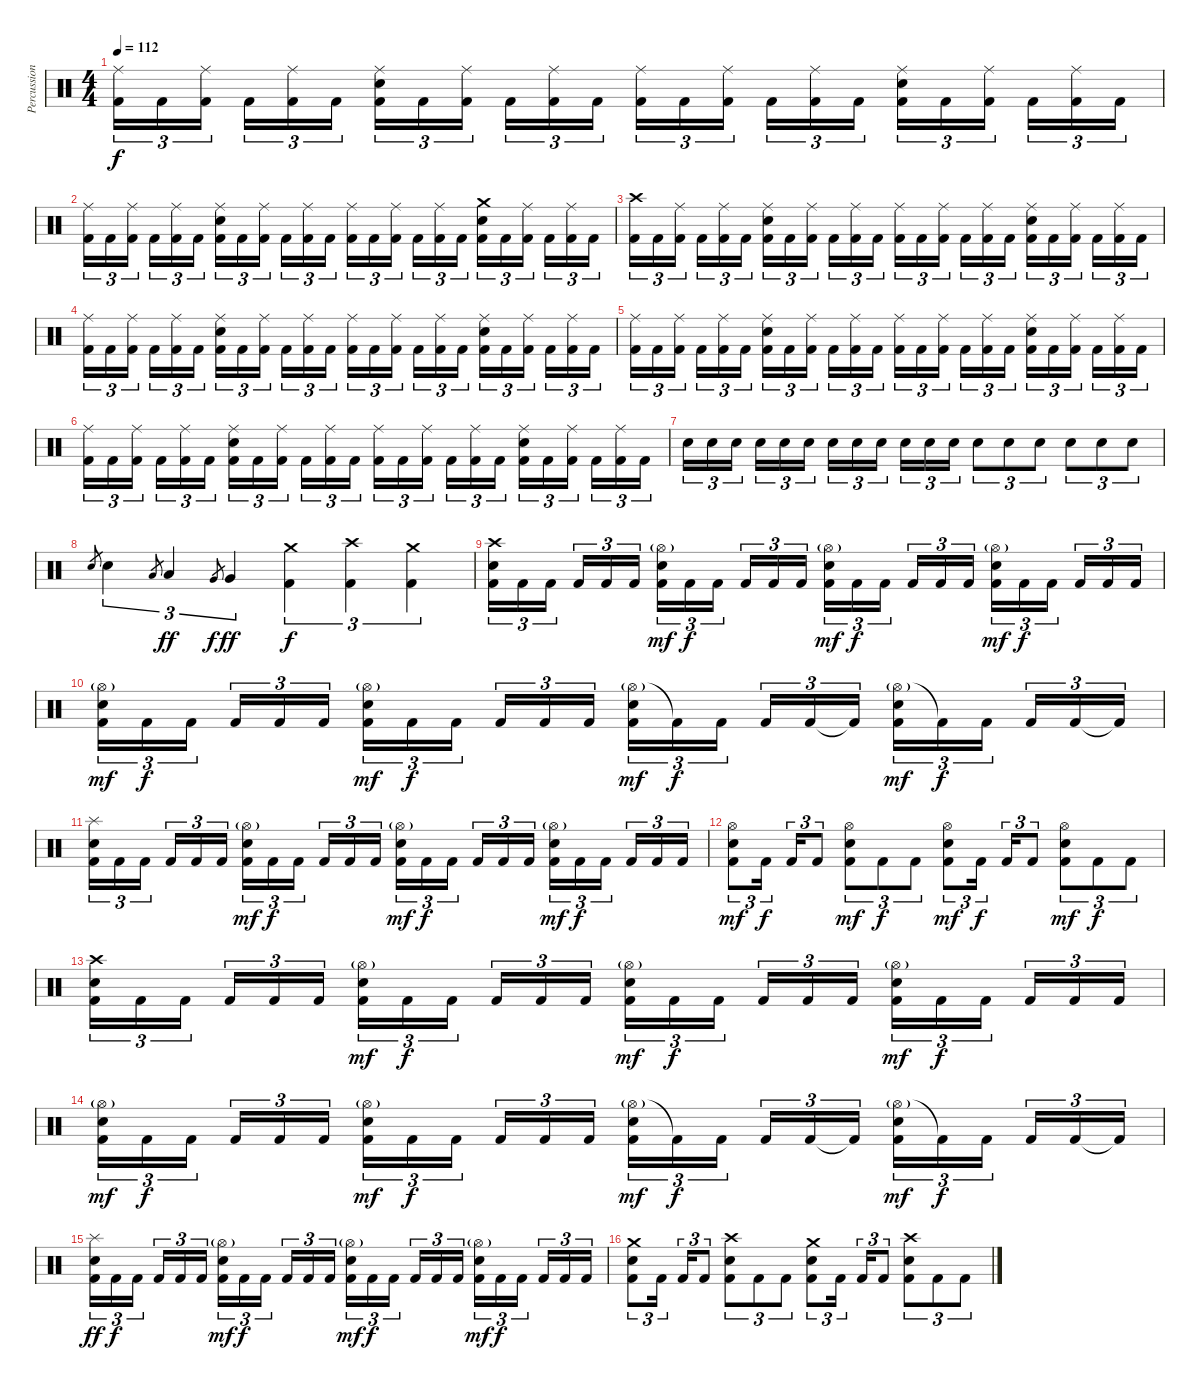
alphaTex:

\track ("Percussion" "Percussion") {instrument percussion}
\staff {score}
\articulation defaults
\ts (4 4)
\tempo 112
\clef neutral
\ks c
("Ride (middle)" "Kick (hit) 2").16{tu (3 2) dy f} "Kick (hit) 2".16{tu (3 2)} ("Ride (middle)" "Kick (hit) 2").16{tu (3 2)} "Kick (hit) 2".16{tu (3 2)} ("Ride (middle)" "Kick (hit) 2").16{tu (3 2)} "Kick (hit) 2".16{tu (3 2)} ("Ride (middle)" "Electric Snare (hit)" "Kick (hit) 2").16{tu (3 2)} "Kick (hit) 2".16{tu (3 2)} ("Ride (middle)" "Kick (hit) 2").16{tu (3 2)} "Kick (hit) 2".16{tu (3 2)} ("Ride (middle)" "Kick (hit) 2").16{tu (3 2)} "Kick (hit) 2".16{tu (3 2)} ("Ride (middle)" "Kick (hit) 2").16{tu (3 2)} "Kick (hit) 2".16{tu (3 2)} ("Ride (middle)" "Kick (hit) 2").16{tu (3 2)} "Kick (hit) 2".16{tu (3 2)} ("Ride (middle)" "Kick (hit) 2").16{tu (3 2)} "Kick (hit) 2".16{tu (3 2)} ("Ride (middle)" "Electric Snare (hit)" "Kick (hit) 2").16{tu (3 2)} "Kick (hit) 2".16{tu (3 2)} ("Ride (middle)" "Kick (hit) 2").16{tu (3 2)} "Kick (hit) 2".16{tu (3 2)} ("Ride (middle)" "Kick (hit) 2").16{tu (3 2)} "Kick (hit) 2".16{tu (3 2)} |
("Ride (middle)" "Kick (hit) 2").16{tu (3 2)} "Kick (hit) 2".16{tu (3 2)} ("Ride (middle)" "Kick (hit) 2").16{tu (3 2)} "Kick (hit) 2".16{tu (3 2)} ("Ride (middle)" "Kick (hit) 2").16{tu (3 2)} "Kick (hit) 2".16{tu (3 2)} ("Ride (middle)" "Electric Snare (hit)" "Kick (hit) 2").16{tu (3 2)} "Kick (hit) 2".16{tu (3 2)} ("Ride (middle)" "Kick (hit) 2").16{tu (3 2)} "Kick (hit) 2".16{tu (3 2)} ("Ride (middle)" "Kick (hit) 2").16{tu (3 2)} "Kick (hit) 2".16{tu (3 2)} ("Ride (middle)" "Kick (hit) 2").16{tu (3 2)} "Kick (hit) 2".16{tu (3 2)} ("Ride (middle)" "Kick (hit) 2").16{tu (3 2)} "Kick (hit) 2".16{tu (3 2)} ("Ride (middle)" "Kick (hit) 2").16{tu (3 2)} "Kick (hit) 2".16{tu (3 2)} ("Crash medium (hit)" "Electric Snare (hit)" "Kick (hit) 2").16{tu (3 2)} "Kick (hit) 2".16{tu (3 2)} ("Ride (middle)" "Kick (hit) 2").16{tu (3 2)} "Kick (hit) 2".16{tu (3 2)} ("Ride (middle)" "Kick (hit) 2").16{tu (3 2)} "Kick (hit) 2".16{tu (3 2)} |
("Crash high (hit)" "Kick (hit) 2").16{tu (3 2)} "Kick (hit) 2".16{tu (3 2)} ("Ride (middle)" "Kick (hit) 2").16{tu (3 2)} "Kick (hit) 2".16{tu (3 2)} ("Ride (middle)" "Kick (hit) 2").16{tu (3 2)} "Kick (hit) 2".16{tu (3 2)} ("Ride (middle)" "Electric Snare (hit)" "Kick (hit) 2").16{tu (3 2)} "Kick (hit) 2".16{tu (3 2)} ("Ride (middle)" "Kick (hit) 2").16{tu (3 2)} "Kick (hit) 2".16{tu (3 2)} ("Ride (middle)" "Kick (hit) 2").16{tu (3 2)} "Kick (hit) 2".16{tu (3 2)} ("Ride (middle)" "Kick (hit) 2").16{tu (3 2)} "Kick (hit) 2".16{tu (3 2)} ("Ride (middle)" "Kick (hit) 2").16{tu (3 2)} "Kick (hit) 2".16{tu (3 2)} ("Ride (middle)" "Kick (hit) 2").16{tu (3 2)} "Kick (hit) 2".16{tu (3 2)} ("Ride (middle)" "Electric Snare (hit)" "Kick (hit) 2").16{tu (3 2)} "Kick (hit) 2".16{tu (3 2)} ("Ride (middle)" "Kick (hit) 2").16{tu (3 2)} "Kick (hit) 2".16{tu (3 2)} ("Ride (middle)" "Kick (hit) 2").16{tu (3 2)} "Kick (hit) 2".16{tu (3 2)} |
("Ride (middle)" "Kick (hit) 2").16{tu (3 2)} "Kick (hit) 2".16{tu (3 2)} ("Ride (middle)" "Kick (hit) 2").16{tu (3 2)} "Kick (hit) 2".16{tu (3 2)} ("Ride (middle)" "Kick (hit) 2").16{tu (3 2)} "Kick (hit) 2".16{tu (3 2)} ("Ride (middle)" "Electric Snare (hit)" "Kick (hit) 2").16{tu (3 2)} "Kick (hit) 2".16{tu (3 2)} ("Ride (middle)" "Kick (hit) 2").16{tu (3 2)} "Kick (hit) 2".16{tu (3 2)} ("Ride (middle)" "Kick (hit) 2").16{tu (3 2)} "Kick (hit) 2".16{tu (3 2)} ("Ride (middle)" "Kick (hit) 2").16{tu (3 2)} "Kick (hit) 2".16{tu (3 2)} ("Ride (middle)" "Kick (hit) 2").16{tu (3 2)} "Kick (hit) 2".16{tu (3 2)} ("Ride (middle)" "Kick (hit) 2").16{tu (3 2)} "Kick (hit) 2".16{tu (3 2)} ("Ride (middle)" "Electric Snare (hit)" "Kick (hit) 2").16{tu (3 2)} "Kick (hit) 2".16{tu (3 2)} ("Ride (middle)" "Kick (hit) 2").16{tu (3 2)} "Kick (hit) 2".16{tu (3 2)} ("Ride (middle)" "Kick (hit) 2").16{tu (3 2)} "Kick (hit) 2".16{tu (3 2)} |
("Ride (middle)" "Kick (hit) 2").16{tu (3 2)} "Kick (hit) 2".16{tu (3 2)} ("Ride (middle)" "Kick (hit) 2").16{tu (3 2)} "Kick (hit) 2".16{tu (3 2)} ("Ride (middle)" "Kick (hit) 2").16{tu (3 2)} "Kick (hit) 2".16{tu (3 2)} ("Ride (middle)" "Electric Snare (hit)" "Kick (hit) 2").16{tu (3 2)} "Kick (hit) 2".16{tu (3 2)} ("Ride (middle)" "Kick (hit) 2").16{tu (3 2)} "Kick (hit) 2".16{tu (3 2)} ("Ride (middle)" "Kick (hit) 2").16{tu (3 2)} "Kick (hit) 2".16{tu (3 2)} ("Ride (middle)" "Kick (hit) 2").16{tu (3 2)} "Kick (hit) 2".16{tu (3 2)} ("Ride (middle)" "Kick (hit) 2").16{tu (3 2)} "Kick (hit) 2".16{tu (3 2)} ("Ride (middle)" "Kick (hit) 2").16{tu (3 2)} "Kick (hit) 2".16{tu (3 2)} ("Ride (middle)" "Electric Snare (hit)" "Kick (hit) 2").16{tu (3 2)} "Kick (hit) 2".16{tu (3 2)} ("Ride (middle)" "Kick (hit) 2").16{tu (3 2)} "Kick (hit) 2".16{tu (3 2)} ("Ride (middle)" "Kick (hit) 2").16{tu (3 2)} "Kick (hit) 2".16{tu (3 2)} |
("Ride (middle)" "Kick (hit) 2").16{tu (3 2)} "Kick (hit) 2".16{tu (3 2)} ("Ride (middle)" "Kick (hit) 2").16{tu (3 2)} "Kick (hit) 2".16{tu (3 2)} ("Ride (middle)" "Kick (hit) 2").16{tu (3 2)} "Kick (hit) 2".16{tu (3 2)} ("Ride (middle)" "Electric Snare (hit)" "Kick (hit) 2").16{tu (3 2)} "Kick (hit) 2".16{tu (3 2)} ("Ride (middle)" "Kick (hit) 2").16{tu (3 2)} "Kick (hit) 2".16{tu (3 2)} ("Ride (middle)" "Kick (hit) 2").16{tu (3 2)} "Kick (hit) 2".16{tu (3 2)} ("Ride (middle)" "Kick (hit) 2").16{tu (3 2)} "Kick (hit) 2".16{tu (3 2)} ("Ride (middle)" "Kick (hit) 2").16{tu (3 2)} "Kick (hit) 2".16{tu (3 2)} ("Ride (middle)" "Kick (hit) 2").16{tu (3 2)} "Kick (hit) 2".16{tu (3 2)} ("Ride (middle)" "Electric Snare (hit)" "Kick (hit) 2").16{tu (3 2)} "Kick (hit) 2".16{tu (3 2)} ("Ride (middle)" "Kick (hit) 2").16{tu (3 2)} "Kick (hit) 2".16{tu (3 2)} ("Ride (middle)" "Kick (hit) 2").16{tu (3 2)} "Kick (hit) 2".16{tu (3 2)} |
"Electric Snare (hit)".16{tu (3 2)} "Electric Snare (hit)".16{tu (3 2)} "Electric Snare (hit)".16{tu (3 2)} "Electric Snare (hit)".16{tu (3 2)} "Electric Snare (hit)".16{tu (3 2)} "Electric Snare (hit)".16{tu (3 2)} "Electric Snare (hit)".16{tu (3 2)} "Electric Snare (hit)".16{tu (3 2)} "Electric Snare (hit)".16{tu (3 2)} "Electric Snare (hit)".16{tu (3 2)} "Electric Snare (hit)".16{tu (3 2)} "Electric Snare (hit)".16{tu (3 2)} "Electric Snare (hit)".8{tu (3 2)} "Electric Snare (hit)".8{tu (3 2)} "Electric Snare (hit)".8{tu (3 2)} "Electric Snare (hit)".8{tu (3 2)} "Electric Snare (hit)".8{tu (3 2)} "Electric Snare (hit)".8{tu (3 2)} |
"Electric Snare (hit)".8{gr} "Electric Snare (hit)".4{tu (3 2)} "Low Tom (hit)".8{gr} "Low Tom (hit)".4{tu (3 2) dy ff} "Very Low Tom (hit)".8{gr dy f} "Very Low Tom (hit)".4{tu (3 2) dy ff} ("Crash medium (hit)" "Kick (hit) 2").4{tu (3 2) dy f} ("Crash high (hit)" "Kick (hit) 2").4{tu (3 2)} ("Crash medium (hit)" "Kick (hit) 2").4{tu (3 2)} |
("Crash high (hit)" "Electric Snare (hit)" "Kick (hit) 2").16{tu (3 2)} "Kick (hit) 2".16{tu (3 2)} "Kick (hit) 2".16{tu (3 2)} "Kick (hit) 2".16{tu (3 2)} "Kick (hit) 2".16{tu (3 2)} "Kick (hit) 2".16{tu (3 2)} ("Hi-Hat (open)"{g} "Electric Snare (hit)" "Kick (hit) 2").16{tu (3 2) dy mf} "Kick (hit) 2".16{tu (3 2) dy f} "Kick (hit) 2".16{tu (3 2)} "Kick (hit) 2".16{tu (3 2)} "Kick (hit) 2".16{tu (3 2)} "Kick (hit) 2".16{tu (3 2)} ("Hi-Hat (open)"{g} "Electric Snare (hit)" "Kick (hit) 2").16{tu (3 2) dy mf} "Kick (hit) 2".16{tu (3 2) dy f} "Kick (hit) 2".16{tu (3 2)} "Kick (hit) 2".16{tu (3 2)} "Kick (hit) 2".16{tu (3 2)} "Kick (hit) 2".16{tu (3 2)} ("Hi-Hat (open)"{g} "Electric Snare (hit)" "Kick (hit) 2").16{tu (3 2) dy mf} "Kick (hit) 2".16{tu (3 2) dy f} "Kick (hit) 2".16{tu (3 2)} "Kick (hit) 2".16{tu (3 2)} "Kick (hit) 2".16{tu (3 2)} "Kick (hit) 2".16{tu (3 2)} |
("Hi-Hat (open)"{g} "Electric Snare (hit)" "Kick (hit) 2").16{tu (3 2) dy mf} "Kick (hit) 2".16{tu (3 2) dy f} "Kick (hit) 2".16{tu (3 2)} "Kick (hit) 2".16{tu (3 2)} "Kick (hit) 2".16{tu (3 2)} "Kick (hit) 2".16{tu (3 2)} ("Hi-Hat (open)"{g} "Electric Snare (hit)" "Kick (hit) 2").16{tu (3 2) dy mf} "Kick (hit) 2".16{tu (3 2) dy f} "Kick (hit) 2".16{tu (3 2)} "Kick (hit) 2".16{tu (3 2)} "Kick (hit) 2".16{tu (3 2)} "Kick (hit) 2".16{tu (3 2)} ("Hi-Hat (open)"{g} "Electric Snare (hit)" "Kick (hit) 2").16{tu (3 2) dy mf} "Kick (hit) 2"{t}.16{tu (3 2) dy f} "Kick (hit) 2".16{tu (3 2)} "Kick (hit) 2".16{tu (3 2)} "Kick (hit) 2".16{tu (3 2)} "Kick (hit) 2"{t}.16{tu (3 2)} ("Hi-Hat (open)"{g} "Electric Snare (hit)" "Kick (hit) 2").16{tu (3 2) dy mf} "Kick (hit) 2"{t}.16{tu (3 2) dy f} "Kick (hit) 2".16{tu (3 2)} "Kick (hit) 2".16{tu (3 2)} "Kick (hit) 2".16{tu (3 2)} "Kick (hit) 2"{t}.16{tu (3 2)} |
("Splash (hit)" "Electric Snare (hit)" "Kick (hit) 2").16{tu (3 2)} "Kick (hit) 2".16{tu (3 2)} "Kick (hit) 2".16{tu (3 2)} "Kick (hit) 2".16{tu (3 2)} "Kick (hit) 2".16{tu (3 2)} "Kick (hit) 2".16{tu (3 2)} ("Hi-Hat (open)"{g} "Electric Snare (hit)" "Kick (hit) 2").16{tu (3 2) dy mf} "Kick (hit) 2".16{tu (3 2) dy f} "Kick (hit) 2".16{tu (3 2)} "Kick (hit) 2".16{tu (3 2)} "Kick (hit) 2".16{tu (3 2)} "Kick (hit) 2".16{tu (3 2)} ("Hi-Hat (open)"{g} "Electric Snare (hit)" "Kick (hit) 2").16{tu (3 2) dy mf} "Kick (hit) 2".16{tu (3 2) dy f} "Kick (hit) 2".16{tu (3 2)} "Kick (hit) 2".16{tu (3 2)} "Kick (hit) 2".16{tu (3 2)} "Kick (hit) 2".16{tu (3 2)} ("Hi-Hat (open)"{g} "Electric Snare (hit)" "Kick (hit) 2").16{tu (3 2) dy mf} "Kick (hit) 2".16{tu (3 2) dy f} "Kick (hit) 2".16{tu (3 2)} "Kick (hit) 2".16{tu (3 2)} "Kick (hit) 2".16{tu (3 2)} "Kick (hit) 2".16{tu (3 2)} |
("Hi-Hat (open)" "Electric Snare (hit)" "Kick (hit) 2").8{tu (3 2) dy mf} "Kick (hit) 2".16{tu (3 2) dy f} "Kick (hit) 2".16{tu (3 2)} "Kick (hit) 2".8{tu (3 2)} ("Hi-Hat (open)" "Electric Snare (hit)" "Kick (hit) 2").8{tu (3 2) dy mf} "Kick (hit) 2".8{tu (3 2) dy f} "Kick (hit) 2".8{tu (3 2)} ("Hi-Hat (open)" "Electric Snare (hit)" "Kick (hit) 2").8{tu (3 2) dy mf} "Kick (hit) 2".16{tu (3 2) dy f} "Kick (hit) 2".16{tu (3 2)} "Kick (hit) 2".8{tu (3 2)} ("Hi-Hat (open)" "Electric Snare (hit)" "Kick (hit) 2").8{tu (3 2) dy mf} "Kick (hit) 2".8{tu (3 2) dy f} "Kick (hit) 2".8{tu (3 2)} |
("Crash high (hit)" "Electric Snare (hit)" "Kick (hit) 2").16{tu (3 2)} "Kick (hit) 2".16{tu (3 2)} "Kick (hit) 2".16{tu (3 2)} "Kick (hit) 2".16{tu (3 2)} "Kick (hit) 2".16{tu (3 2)} "Kick (hit) 2".16{tu (3 2)} ("Hi-Hat (open)"{g} "Electric Snare (hit)" "Kick (hit) 2").16{tu (3 2) dy mf} "Kick (hit) 2".16{tu (3 2) dy f} "Kick (hit) 2".16{tu (3 2)} "Kick (hit) 2".16{tu (3 2)} "Kick (hit) 2".16{tu (3 2)} "Kick (hit) 2".16{tu (3 2)} ("Hi-Hat (open)"{g} "Electric Snare (hit)" "Kick (hit) 2").16{tu (3 2) dy mf} "Kick (hit) 2".16{tu (3 2) dy f} "Kick (hit) 2".16{tu (3 2)} "Kick (hit) 2".16{tu (3 2)} "Kick (hit) 2".16{tu (3 2)} "Kick (hit) 2".16{tu (3 2)} ("Hi-Hat (open)"{g} "Electric Snare (hit)" "Kick (hit) 2").16{tu (3 2) dy mf} "Kick (hit) 2".16{tu (3 2) dy f} "Kick (hit) 2".16{tu (3 2)} "Kick (hit) 2".16{tu (3 2)} "Kick (hit) 2".16{tu (3 2)} "Kick (hit) 2".16{tu (3 2)} |
("Hi-Hat (open)"{g} "Electric Snare (hit)" "Kick (hit) 2").16{tu (3 2) dy mf} "Kick (hit) 2".16{tu (3 2) dy f} "Kick (hit) 2".16{tu (3 2)} "Kick (hit) 2".16{tu (3 2)} "Kick (hit) 2".16{tu (3 2)} "Kick (hit) 2".16{tu (3 2)} ("Hi-Hat (open)"{g} "Electric Snare (hit)" "Kick (hit) 2").16{tu (3 2) dy mf} "Kick (hit) 2".16{tu (3 2) dy f} "Kick (hit) 2".16{tu (3 2)} "Kick (hit) 2".16{tu (3 2)} "Kick (hit) 2".16{tu (3 2)} "Kick (hit) 2".16{tu (3 2)} ("Hi-Hat (open)"{g} "Electric Snare (hit)" "Kick (hit) 2").16{tu (3 2) dy mf} "Kick (hit) 2"{t}.16{tu (3 2) dy f} "Kick (hit) 2".16{tu (3 2)} "Kick (hit) 2".16{tu (3 2)} "Kick (hit) 2".16{tu (3 2)} "Kick (hit) 2"{t}.16{tu (3 2)} ("Hi-Hat (open)"{g} "Electric Snare (hit)" "Kick (hit) 2").16{tu (3 2) dy mf} "Kick (hit) 2"{t}.16{tu (3 2) dy f} "Kick (hit) 2".16{tu (3 2)} "Kick (hit) 2".16{tu (3 2)} "Kick (hit) 2".16{tu (3 2)} "Kick (hit) 2"{t}.16{tu (3 2)} |
("Splash (hit)" "Electric Snare (hit)" "Kick (hit) 2").16{tu (3 2) dy ff} "Kick (hit) 2".16{tu (3 2) dy f} "Kick (hit) 2".16{tu (3 2)} "Kick (hit) 2".16{tu (3 2)} "Kick (hit) 2".16{tu (3 2)} "Kick (hit) 2".16{tu (3 2)} ("Hi-Hat (open)"{g} "Electric Snare (hit)" "Kick (hit) 2").16{tu (3 2) dy mf} "Kick (hit) 2".16{tu (3 2) dy f} "Kick (hit) 2".16{tu (3 2)} "Kick (hit) 2".16{tu (3 2)} "Kick (hit) 2".16{tu (3 2)} "Kick (hit) 2".16{tu (3 2)} ("Hi-Hat (open)"{g} "Electric Snare (hit)" "Kick (hit) 2").16{tu (3 2) dy mf} "Kick (hit) 2".16{tu (3 2) dy f} "Kick (hit) 2".16{tu (3 2)} "Kick (hit) 2".16{tu (3 2)} "Kick (hit) 2".16{tu (3 2)} "Kick (hit) 2".16{tu (3 2)} ("Hi-Hat (open)"{g} "Electric Snare (hit)" "Kick (hit) 2").16{tu (3 2) dy mf} "Kick (hit) 2".16{tu (3 2) dy f} "Kick (hit) 2".16{tu (3 2)} "Kick (hit) 2".16{tu (3 2)} "Kick (hit) 2".16{tu (3 2)} "Kick (hit) 2".16{tu (3 2)} |
("Crash medium (hit)" "Electric Snare (hit)" "Kick (hit) 2").8{tu (3 2)} "Kick (hit) 2".16{tu (3 2)} "Kick (hit) 2".16{tu (3 2)} "Kick (hit) 2".8{tu (3 2)} ("Crash high (hit)" "Electric Snare (hit)" "Kick (hit) 2").8{tu (3 2)} "Kick (hit) 2".8{tu (3 2)} "Kick (hit) 2".8{tu (3 2)} ("Crash medium (hit)" "Electric Snare (hit)" "Kick (hit) 2").8{tu (3 2)} "Kick (hit) 2".16{tu (3 2)} "Kick (hit) 2".16{tu (3 2)} "Kick (hit) 2".8{tu (3 2)} ("Crash high (hit)" "Electric Snare (hit)" "Kick (hit) 2").8{tu (3 2)} "Kick (hit) 2".8{tu (3 2)} "Kick (hit) 2".8{tu (3 2)}
